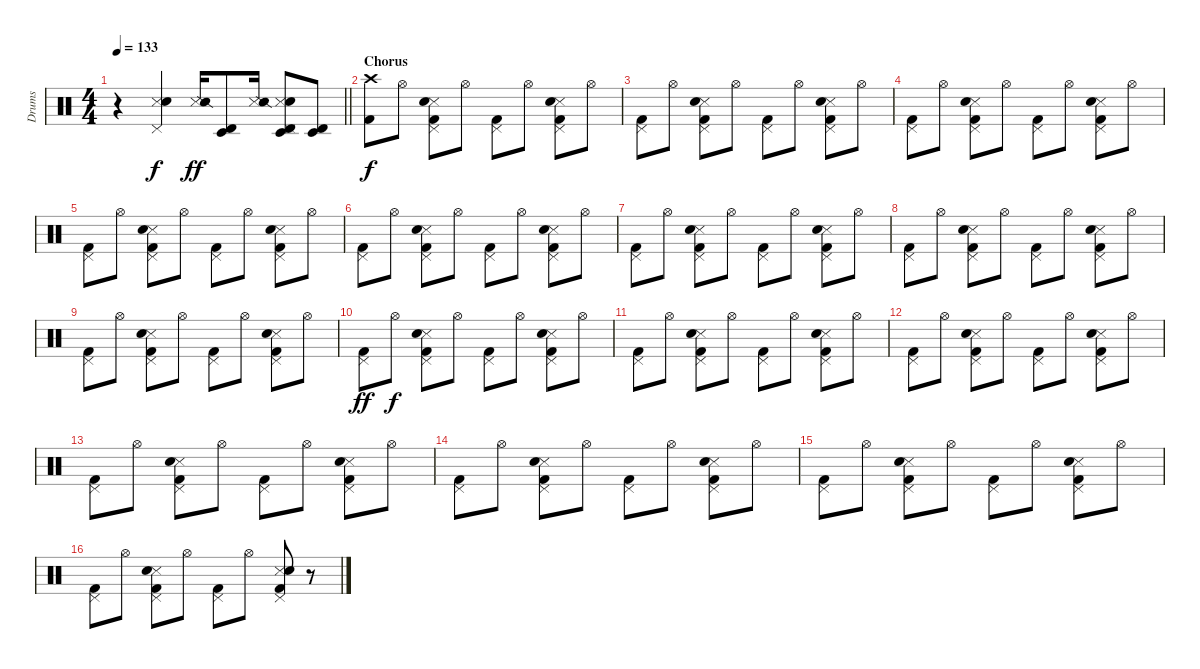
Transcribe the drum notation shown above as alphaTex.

\track ("Drums" "Drums") {instrument percussion}
\staff {score}
\articulation defaults
\ts (4 4)
\tempo 133
\clef neutral
\barLineRight lightlight
\ks c
r.4{dy f} ("Snare (side stick) 3" "Hand Clap (hit)" "Pedal Hi-Hat (hit)").4 ("Snare (side stick) 3" "Snare (side stick) 2").16{dy ff} ("Timbale low (hit)" "Timbale high (hit)").8 ("Snare (side stick) 3" "Snare (side stick) 2").16 ("Snare (side stick) 3" "Hand Clap (hit)" "Timbale low (hit)" "Timbale high (hit)" "Pedal Hi-Hat (hit)").8 ("Timbale low (hit)" "Timbale high (hit)").8 |
\section ("" "Chorus")
("Crash high (hit)" "Kick (hit) 2").8{dy f} "Hi-Hat (open)".8 ("Snare (side stick) 3" "Hand Clap (hit)" "Pedal Hi-Hat (hit)" "Kick (hit) 2").8 "Hi-Hat (open)".8 ("Pedal Hi-Hat (hit)" "Kick (hit) 2").8 "Hi-Hat (open)".8 ("Snare (side stick) 3" "Hand Clap (hit)" "Pedal Hi-Hat (hit)" "Kick (hit) 2").8 "Hi-Hat (open)".8 |
("Pedal Hi-Hat (hit)" "Kick (hit) 2").8 "Hi-Hat (open)".8 ("Snare (side stick) 3" "Hand Clap (hit)" "Pedal Hi-Hat (hit)" "Kick (hit) 2").8 "Hi-Hat (open)".8 ("Pedal Hi-Hat (hit)" "Kick (hit) 2").8 "Hi-Hat (open)".8 ("Snare (side stick) 3" "Hand Clap (hit)" "Pedal Hi-Hat (hit)" "Kick (hit) 2").8 "Hi-Hat (open)".8 |
("Pedal Hi-Hat (hit)" "Kick (hit) 2").8 "Hi-Hat (open)".8 ("Snare (side stick) 3" "Hand Clap (hit)" "Pedal Hi-Hat (hit)" "Kick (hit) 2").8 "Hi-Hat (open)".8 ("Pedal Hi-Hat (hit)" "Kick (hit) 2").8 "Hi-Hat (open)".8 ("Snare (side stick) 3" "Hand Clap (hit)" "Pedal Hi-Hat (hit)" "Kick (hit) 2").8 "Hi-Hat (open)".8 |
("Pedal Hi-Hat (hit)" "Kick (hit) 2").8 "Hi-Hat (open)".8 ("Snare (side stick) 3" "Hand Clap (hit)" "Pedal Hi-Hat (hit)" "Kick (hit) 2").8 "Hi-Hat (open)".8 ("Pedal Hi-Hat (hit)" "Kick (hit) 2").8 "Hi-Hat (open)".8 ("Snare (side stick) 3" "Hand Clap (hit)" "Pedal Hi-Hat (hit)" "Kick (hit) 2").8 "Hi-Hat (open)".8 |
("Pedal Hi-Hat (hit)" "Kick (hit) 2").8 "Hi-Hat (open)".8 ("Snare (side stick) 3" "Hand Clap (hit)" "Pedal Hi-Hat (hit)" "Kick (hit) 2").8 "Hi-Hat (open)".8 ("Pedal Hi-Hat (hit)" "Kick (hit) 2").8 "Hi-Hat (open)".8 ("Snare (side stick) 3" "Hand Clap (hit)" "Pedal Hi-Hat (hit)" "Kick (hit) 2").8 "Hi-Hat (open)".8 |
("Pedal Hi-Hat (hit)" "Kick (hit) 2").8 "Hi-Hat (open)".8 ("Snare (side stick) 3" "Hand Clap (hit)" "Pedal Hi-Hat (hit)" "Kick (hit) 2").8 "Hi-Hat (open)".8 ("Pedal Hi-Hat (hit)" "Kick (hit) 2").8 "Hi-Hat (open)".8 ("Snare (side stick) 3" "Hand Clap (hit)" "Pedal Hi-Hat (hit)" "Kick (hit) 2").8 "Hi-Hat (open)".8 |
("Pedal Hi-Hat (hit)" "Kick (hit) 2").8 "Hi-Hat (open)".8 ("Snare (side stick) 3" "Hand Clap (hit)" "Pedal Hi-Hat (hit)" "Kick (hit) 2").8 "Hi-Hat (open)".8 ("Pedal Hi-Hat (hit)" "Kick (hit) 2").8 "Hi-Hat (open)".8 ("Snare (side stick) 3" "Hand Clap (hit)" "Pedal Hi-Hat (hit)" "Kick (hit) 2").8 "Hi-Hat (open)".8 |
("Pedal Hi-Hat (hit)" "Kick (hit) 2").8 "Hi-Hat (open)".8 ("Snare (side stick) 3" "Hand Clap (hit)" "Pedal Hi-Hat (hit)" "Kick (hit) 2").8 "Hi-Hat (open)".8 ("Pedal Hi-Hat (hit)" "Kick (hit) 2").8 "Hi-Hat (open)".8 ("Snare (side stick) 3" "Hand Clap (hit)" "Pedal Hi-Hat (hit)" "Kick (hit) 2").8 "Hi-Hat (open)".8 |
("Pedal Hi-Hat (hit)" "Kick (hit) 2").8{dy ff} "Hi-Hat (open)".8{dy f} ("Snare (side stick) 3" "Hand Clap (hit)" "Pedal Hi-Hat (hit)" "Kick (hit) 2").8 "Hi-Hat (open)".8 ("Pedal Hi-Hat (hit)" "Kick (hit) 2").8 "Hi-Hat (open)".8 ("Snare (side stick) 3" "Hand Clap (hit)" "Pedal Hi-Hat (hit)" "Kick (hit) 2").8 "Hi-Hat (open)".8 |
("Pedal Hi-Hat (hit)" "Kick (hit) 2").8 "Hi-Hat (open)".8 ("Snare (side stick) 3" "Hand Clap (hit)" "Pedal Hi-Hat (hit)" "Kick (hit) 2").8 "Hi-Hat (open)".8 ("Pedal Hi-Hat (hit)" "Kick (hit) 2").8 "Hi-Hat (open)".8 ("Snare (side stick) 3" "Hand Clap (hit)" "Pedal Hi-Hat (hit)" "Kick (hit) 2").8 "Hi-Hat (open)".8 |
("Pedal Hi-Hat (hit)" "Kick (hit) 2").8 "Hi-Hat (open)".8 ("Snare (side stick) 3" "Hand Clap (hit)" "Pedal Hi-Hat (hit)" "Kick (hit) 2").8 "Hi-Hat (open)".8 ("Pedal Hi-Hat (hit)" "Kick (hit) 2").8 "Hi-Hat (open)".8 ("Snare (side stick) 3" "Hand Clap (hit)" "Pedal Hi-Hat (hit)" "Kick (hit) 2").8 "Hi-Hat (open)".8 |
("Pedal Hi-Hat (hit)" "Kick (hit) 2").8 "Hi-Hat (open)".8 ("Snare (side stick) 3" "Hand Clap (hit)" "Pedal Hi-Hat (hit)" "Kick (hit) 2").8 "Hi-Hat (open)".8 ("Pedal Hi-Hat (hit)" "Kick (hit) 2").8 "Hi-Hat (open)".8 ("Snare (side stick) 3" "Hand Clap (hit)" "Pedal Hi-Hat (hit)" "Kick (hit) 2").8 "Hi-Hat (open)".8 |
("Pedal Hi-Hat (hit)" "Kick (hit) 2").8 "Hi-Hat (open)".8 ("Snare (side stick) 3" "Hand Clap (hit)" "Pedal Hi-Hat (hit)" "Kick (hit) 2").8 "Hi-Hat (open)".8 ("Pedal Hi-Hat (hit)" "Kick (hit) 2").8 "Hi-Hat (open)".8 ("Snare (side stick) 3" "Hand Clap (hit)" "Pedal Hi-Hat (hit)" "Kick (hit) 2").8 "Hi-Hat (open)".8 |
("Pedal Hi-Hat (hit)" "Kick (hit) 2").8 "Hi-Hat (open)".8 ("Snare (side stick) 3" "Hand Clap (hit)" "Pedal Hi-Hat (hit)" "Kick (hit) 2").8 "Hi-Hat (open)".8 ("Pedal Hi-Hat (hit)" "Kick (hit) 2").8 "Hi-Hat (open)".8 ("Snare (side stick) 3" "Hand Clap (hit)" "Pedal Hi-Hat (hit)" "Kick (hit) 2").8 "Hi-Hat (open)".8 |
("Pedal Hi-Hat (hit)" "Kick (hit) 2").8 "Hi-Hat (open)".8 ("Snare (side stick) 3" "Hand Clap (hit)" "Pedal Hi-Hat (hit)" "Kick (hit) 2").8 "Hi-Hat (open)".8 ("Pedal Hi-Hat (hit)" "Kick (hit) 2").8 "Hi-Hat (open)".8 ("Snare (side stick) 3" "Hand Clap (hit)" "Pedal Hi-Hat (hit)" "Kick (hit) 2").8 r.8
